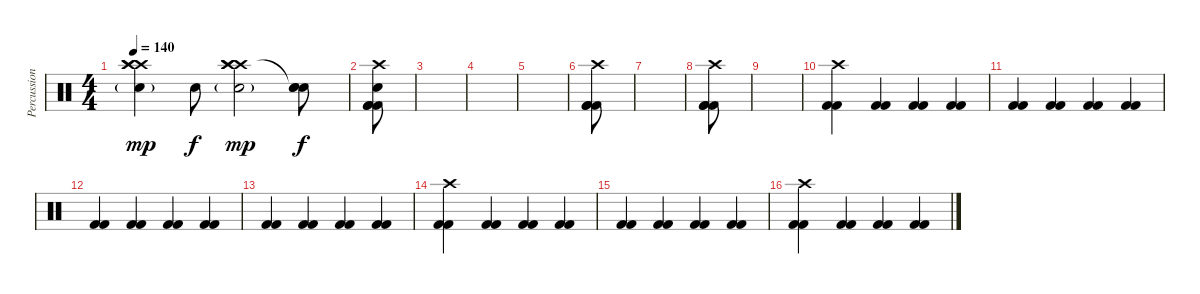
\track ("Percussion" "Percussion") {instrument percussion}
\staff {score}
\articulation defaults
\ts (4 4)
\tempo 140
\clef neutral
\ks c
("Crash high (hit)" "Crash high (hit)" "Crash high (hit)" "Electric Snare (hit)"{g}).4{dy mp} "Electric Snare (hit)".8{dy f} ("Crash high (hit)" "Crash high (hit)" "Crash high (hit)" "Electric Snare (hit)"{g}).2{dy mp} ("Snare (hit)"{t} "Electric Snare (hit)" "Electric Snare (hit)").8{dy f} |
("Crash high (hit)" "Electric Snare (hit)" "Kick (hit) 2" "Kick (hit) 2" "Kick (hit) 2").8 |
|
|
|
("Crash high (hit)" "Kick (hit) 2" "Kick (hit) 2" "Kick (hit) 2").8 |
|
("Crash high (hit)" "Kick (hit) 2" "Kick (hit) 2" "Kick (hit) 2").8 |
|
("Crash high (hit)" "Kick (hit) 2" "Kick (hit) 2").4 ("Kick (hit) 2" "Kick (hit) 2").4 ("Kick (hit) 2" "Kick (hit) 2").4 ("Kick (hit) 2" "Kick (hit) 2").4 |
("Kick (hit) 2" "Kick (hit) 2").4 ("Kick (hit) 2" "Kick (hit) 2").4 ("Kick (hit) 2" "Kick (hit) 2").4 ("Kick (hit) 2" "Kick (hit) 2").4 |
("Kick (hit) 2" "Kick (hit) 2").4 ("Kick (hit) 2" "Kick (hit) 2").4 ("Kick (hit) 2" "Kick (hit) 2").4 ("Kick (hit) 2" "Kick (hit) 2").4 |
("Kick (hit) 2" "Kick (hit) 2").4 ("Kick (hit) 2" "Kick (hit) 2").4 ("Kick (hit) 2" "Kick (hit) 2").4 ("Kick (hit) 2" "Kick (hit) 2").4 |
("Crash high (hit)" "Kick (hit) 2" "Kick (hit) 2").4 ("Kick (hit) 2" "Kick (hit) 2").4 ("Kick (hit) 2" "Kick (hit) 2").4 ("Kick (hit) 2" "Kick (hit) 2").4 |
("Kick (hit) 2" "Kick (hit) 2").4 ("Kick (hit) 2" "Kick (hit) 2").4 ("Kick (hit) 2" "Kick (hit) 2").4 ("Kick (hit) 2" "Kick (hit) 2").4 |
("Crash high (hit)" "Kick (hit) 2" "Kick (hit) 2").4 ("Kick (hit) 2" "Kick (hit) 2").4 ("Kick (hit) 2" "Kick (hit) 2").4 ("Kick (hit) 2" "Kick (hit) 2").4
